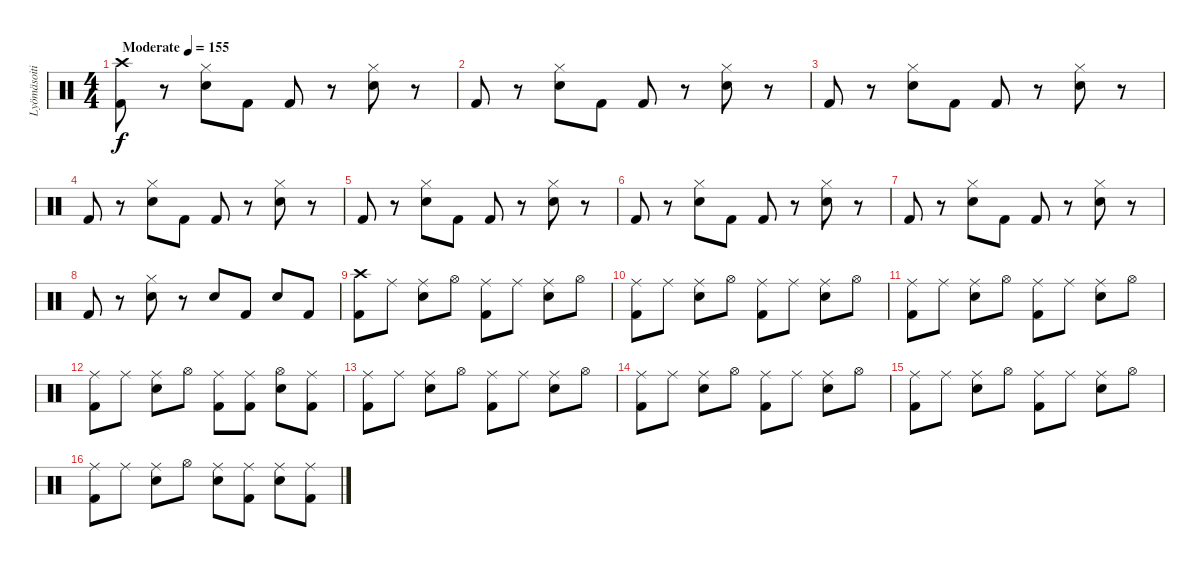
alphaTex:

\track ("Lyömäsoitin" "Lyömäsoiti") {instrument percussion}
\staff {score}
\articulation defaults
\ts (4 4)
\tempo (155 "Moderate")
\clef neutral
\ks c
("Crash high (hit)" "Kick (hit) 2").8{dy f} r.8 ("Hi-Hat (closed)" "Snare (hit) 2").8 "Kick (hit) 2".8 "Kick (hit) 2".8 r.8 ("Hi-Hat (closed)" "Snare (hit) 2").8 r.8 |
"Kick (hit) 2".8 r.8 ("Hi-Hat (closed)" "Snare (hit) 2").8 "Kick (hit) 2".8 "Kick (hit) 2".8 r.8 ("Hi-Hat (closed)" "Snare (hit) 2").8 r.8 |
"Kick (hit) 2".8 r.8 ("Hi-Hat (closed)" "Snare (hit) 2").8 "Kick (hit) 2".8 "Kick (hit) 2".8 r.8 ("Hi-Hat (closed)" "Snare (hit) 2").8 r.8 |
"Kick (hit) 2".8 r.8 ("Hi-Hat (closed)" "Snare (hit) 2").8 "Kick (hit) 2".8 "Kick (hit) 2".8 r.8 ("Hi-Hat (closed)" "Snare (hit) 2").8 r.8 |
"Kick (hit) 2".8 r.8 ("Hi-Hat (closed)" "Snare (hit) 2").8 "Kick (hit) 2".8 "Kick (hit) 2".8 r.8 ("Hi-Hat (closed)" "Snare (hit) 2").8 r.8 |
"Kick (hit) 2".8 r.8 ("Hi-Hat (closed)" "Snare (hit) 2").8 "Kick (hit) 2".8 "Kick (hit) 2".8 r.8 ("Hi-Hat (closed)" "Snare (hit) 2").8 r.8 |
"Kick (hit) 2".8 r.8 ("Hi-Hat (closed)" "Snare (hit) 2").8 "Kick (hit) 2".8 "Kick (hit) 2".8 r.8 ("Hi-Hat (closed)" "Snare (hit) 2").8 r.8 |
"Kick (hit) 2".8 r.8 ("Hi-Hat (closed)" "Snare (hit) 2").8 r.8 "Snare (hit) 2".8 "Kick (hit) 2".8 "Snare (hit) 2".8 "Kick (hit) 2".8 |
("Crash high (hit)" "Kick (hit) 2").8 "Ride (middle)".8 ("Ride (middle)" "Snare (hit) 2").8 "Hi-Hat (open)".8 ("Ride (middle)" "Kick (hit) 2").8 "Ride (middle)".8 ("Ride (middle)" "Snare (hit) 2").8 "Hi-Hat (open)".8 |
("Ride (middle)" "Kick (hit) 2").8 "Ride (middle)".8 ("Ride (middle)" "Snare (hit) 2").8 "Hi-Hat (open)".8 ("Ride (middle)" "Kick (hit) 2").8 "Ride (middle)".8 ("Ride (middle)" "Snare (hit) 2").8 "Hi-Hat (open)".8 |
("Ride (middle)" "Kick (hit) 2").8 "Ride (middle)".8 ("Ride (middle)" "Snare (hit) 2").8 "Hi-Hat (open)".8 ("Ride (middle)" "Kick (hit) 2").8 "Ride (middle)".8 ("Ride (middle)" "Snare (hit) 2").8 "Hi-Hat (open)".8 |
("Ride (middle)" "Kick (hit) 2").8 "Ride (middle)".8 ("Ride (middle)" "Snare (hit) 2").8 "Hi-Hat (open)".8 ("Ride (middle)" "Kick (hit) 2").8 ("Ride (middle)" "Kick (hit) 2").8 ("Hi-Hat (open)" "Snare (hit) 2").8 ("Ride (middle)" "Kick (hit) 2").8 |
("Ride (middle)" "Kick (hit) 2").8 "Ride (middle)".8 ("Ride (middle)" "Snare (hit) 2").8 "Hi-Hat (open)".8 ("Ride (middle)" "Kick (hit) 2").8 "Ride (middle)".8 ("Ride (middle)" "Snare (hit) 2").8 "Hi-Hat (open)".8 |
("Ride (middle)" "Kick (hit) 2").8 "Ride (middle)".8 ("Ride (middle)" "Snare (hit) 2").8 "Hi-Hat (open)".8 ("Ride (middle)" "Kick (hit) 2").8 "Ride (middle)".8 ("Ride (middle)" "Snare (hit) 2").8 "Hi-Hat (open)".8 |
("Ride (middle)" "Kick (hit) 2").8 "Ride (middle)".8 ("Ride (middle)" "Snare (hit) 2").8 "Hi-Hat (open)".8 ("Ride (middle)" "Kick (hit) 2").8 "Ride (middle)".8 ("Ride (middle)" "Snare (hit) 2").8 "Hi-Hat (open)".8 |
("Ride (middle)" "Kick (hit) 2").8 "Ride (middle)".8 ("Ride (middle)" "Snare (hit) 2").8 "Hi-Hat (open)".8 ("Ride (middle)" "Snare (hit) 2").8 ("Ride (middle)" "Kick (hit) 2").8 ("Ride (middle)" "Snare (hit) 2").8 ("Ride (middle)" "Kick (hit) 2").8
